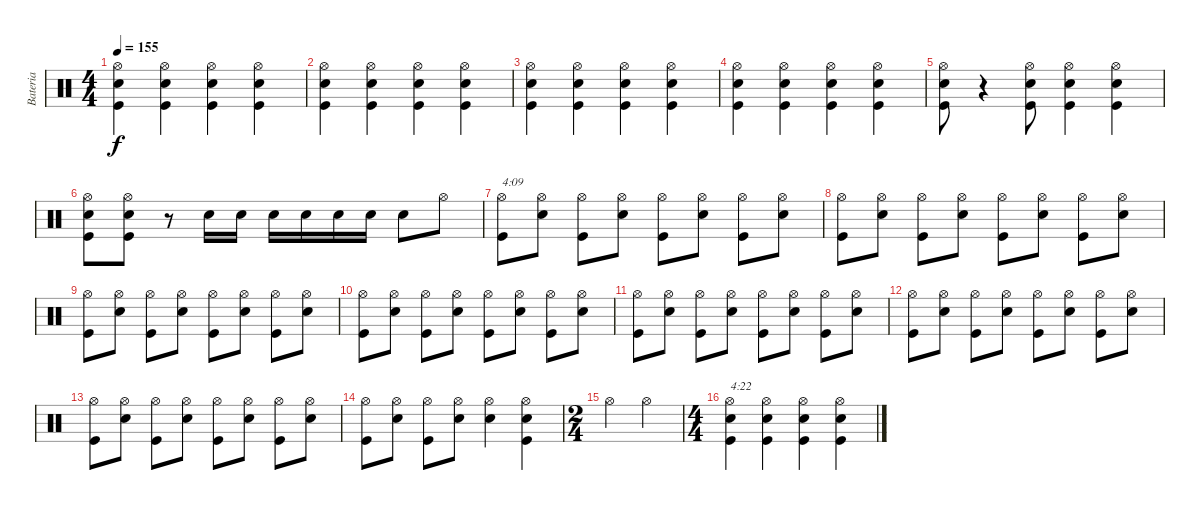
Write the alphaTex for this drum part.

\track ("Bateria" "Bateria") {instrument percussion}
\staff {score}
\articulation defaults
\ts (4 4)
\tempo 155
\clef neutral
\ks c
("Kick (hit)" "Snare (hit) 2" "Hi-Hat (open)").4{dy f} ("Kick (hit)" "Snare (hit) 2" "Hi-Hat (open)").4 ("Kick (hit)" "Snare (hit) 2" "Hi-Hat (open)").4 ("Kick (hit)" "Snare (hit) 2" "Hi-Hat (open)").4 |
("Kick (hit)" "Snare (hit) 2" "Hi-Hat (open)").4 ("Kick (hit)" "Snare (hit) 2" "Hi-Hat (open)").4 ("Kick (hit)" "Snare (hit) 2" "Hi-Hat (open)").4 ("Kick (hit)" "Snare (hit) 2" "Hi-Hat (open)").4 |
("Kick (hit)" "Snare (hit) 2" "Hi-Hat (open)").4 ("Kick (hit)" "Snare (hit) 2" "Hi-Hat (open)").4 ("Kick (hit)" "Snare (hit) 2" "Hi-Hat (open)").4 ("Kick (hit)" "Snare (hit) 2" "Hi-Hat (open)").4 |
("Kick (hit)" "Snare (hit) 2" "Hi-Hat (open)").4 ("Kick (hit)" "Snare (hit) 2" "Hi-Hat (open)").4 ("Kick (hit)" "Snare (hit) 2" "Hi-Hat (open)").4 ("Kick (hit)" "Snare (hit) 2" "Hi-Hat (open)").4 |
("Kick (hit)" "Snare (hit) 2" "Hi-Hat (open)").8 r.4 ("Kick (hit)" "Snare (hit) 2" "Hi-Hat (open)").8 ("Kick (hit)" "Snare (hit) 2" "Hi-Hat (open)").4 ("Kick (hit)" "Snare (hit) 2" "Hi-Hat (open)").4 |
("Kick (hit)" "Snare (hit) 2" "Hi-Hat (open)").8 ("Kick (hit)" "Snare (hit) 2" "Hi-Hat (open)").8 r.8 "Snare (hit) 2".16 "Snare (hit) 2".16 "Snare (hit) 2".16 "Snare (hit) 2".16 "Snare (hit) 2".16 "Snare (hit) 2".16 "Snare (hit) 2".8 "Hi-Hat (open)".8 |
("Kick (hit)" "Hi-Hat (open)").8{txt "4:09"} ("Snare (hit) 2" "Hi-Hat (open)").8 ("Kick (hit)" "Hi-Hat (open)").8 ("Snare (hit) 2" "Hi-Hat (open)").8 ("Kick (hit)" "Hi-Hat (open)").8 ("Snare (hit) 2" "Hi-Hat (open)").8 ("Kick (hit)" "Hi-Hat (open)").8 ("Snare (hit) 2" "Hi-Hat (open)").8 |
("Kick (hit)" "Hi-Hat (open)").8 ("Snare (hit) 2" "Hi-Hat (open)").8 ("Kick (hit)" "Hi-Hat (open)").8 ("Snare (hit) 2" "Hi-Hat (open)").8 ("Kick (hit)" "Hi-Hat (open)").8 ("Snare (hit) 2" "Hi-Hat (open)").8 ("Kick (hit)" "Hi-Hat (open)").8 ("Snare (hit) 2" "Hi-Hat (open)").8 |
("Kick (hit)" "Hi-Hat (open)").8 ("Snare (hit) 2" "Hi-Hat (open)").8 ("Kick (hit)" "Hi-Hat (open)").8 ("Snare (hit) 2" "Hi-Hat (open)").8 ("Kick (hit)" "Hi-Hat (open)").8 ("Snare (hit) 2" "Hi-Hat (open)").8 ("Kick (hit)" "Hi-Hat (open)").8 ("Snare (hit) 2" "Hi-Hat (open)").8 |
("Kick (hit)" "Hi-Hat (open)").8 ("Snare (hit) 2" "Hi-Hat (open)").8 ("Kick (hit)" "Hi-Hat (open)").8 ("Snare (hit) 2" "Hi-Hat (open)").8 ("Kick (hit)" "Hi-Hat (open)").8 ("Snare (hit) 2" "Hi-Hat (open)").8 ("Kick (hit)" "Hi-Hat (open)").8 ("Snare (hit) 2" "Hi-Hat (open)").8 |
("Kick (hit)" "Hi-Hat (open)").8 ("Snare (hit) 2" "Hi-Hat (open)").8 ("Kick (hit)" "Hi-Hat (open)").8 ("Snare (hit) 2" "Hi-Hat (open)").8 ("Kick (hit)" "Hi-Hat (open)").8 ("Snare (hit) 2" "Hi-Hat (open)").8 ("Kick (hit)" "Hi-Hat (open)").8 ("Snare (hit) 2" "Hi-Hat (open)").8 |
("Kick (hit)" "Hi-Hat (open)").8 ("Snare (hit) 2" "Hi-Hat (open)").8 ("Kick (hit)" "Hi-Hat (open)").8 ("Snare (hit) 2" "Hi-Hat (open)").8 ("Kick (hit)" "Hi-Hat (open)").8 ("Snare (hit) 2" "Hi-Hat (open)").8 ("Kick (hit)" "Hi-Hat (open)").8 ("Snare (hit) 2" "Hi-Hat (open)").8 |
("Kick (hit)" "Hi-Hat (open)").8 ("Snare (hit) 2" "Hi-Hat (open)").8 ("Kick (hit)" "Hi-Hat (open)").8 ("Snare (hit) 2" "Hi-Hat (open)").8 ("Kick (hit)" "Hi-Hat (open)").8 ("Snare (hit) 2" "Hi-Hat (open)").8 ("Kick (hit)" "Hi-Hat (open)").8 ("Snare (hit) 2" "Hi-Hat (open)").8 |
("Kick (hit)" "Hi-Hat (open)").8 ("Snare (hit) 2" "Hi-Hat (open)").8 ("Kick (hit)" "Hi-Hat (open)").8 ("Snare (hit) 2" "Hi-Hat (open)").8 ("Snare (hit) 2" "Hi-Hat (open)").4 ("Kick (hit)" "Snare (hit) 2" "Hi-Hat (open)").4 |
\ts (2 4)
"Hi-Hat (open)".4 "Hi-Hat (open)".4 |
\ts (4 4)
("Kick (hit)" "Snare (hit) 2" "Hi-Hat (open)").4{txt "4:22"} ("Kick (hit)" "Snare (hit) 2" "Hi-Hat (open)").4 ("Kick (hit)" "Snare (hit) 2" "Hi-Hat (open)").4 ("Kick (hit)" "Snare (hit) 2" "Hi-Hat (open)").4
